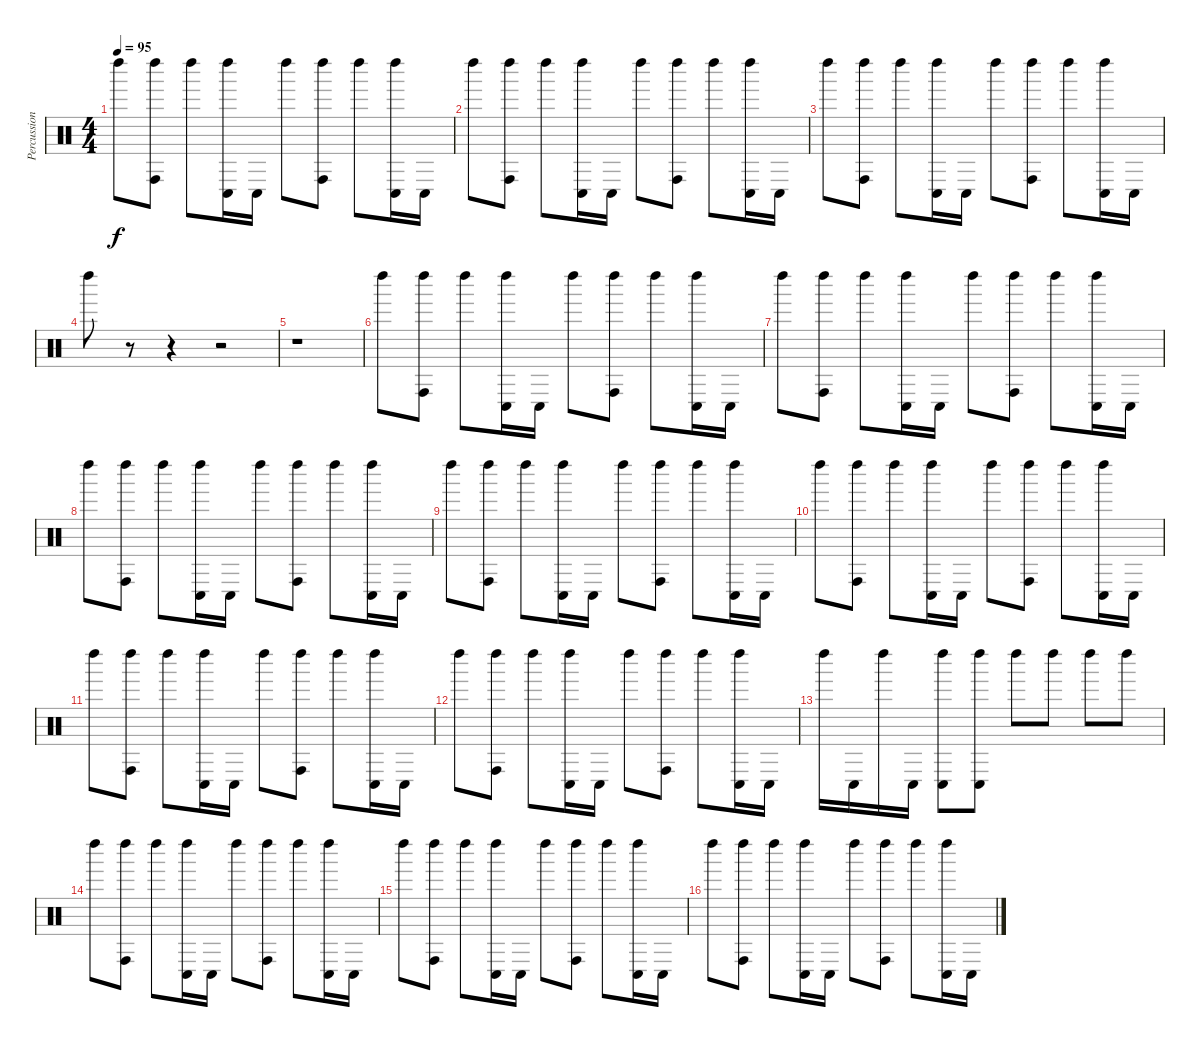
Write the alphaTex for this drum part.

\track ("Percussion" "Percussion") {instrument percussion}
\staff {score}
\articulation defaults
\ts (4 4)
\tempo 95
\clef neutral
\ks c "Left Maraca (hit)".8{dy f}
("Left Maraca (hit)" "Conga high (hit)").8 "Left Maraca (hit)".8 ("Left Maraca (hit)" "Conga low (hit)").16 "Conga low (hit)".16 "Left Maraca (hit)".8 ("Left Maraca (hit)" "Conga high (hit)").8 "Left Maraca (hit)".8 ("Left Maraca (hit)" "Conga low (hit)").16 "Conga low (hit)".16 |
"Left Maraca (hit)".8 ("Left Maraca (hit)" "Conga high (hit)").8 "Left Maraca (hit)".8 ("Left Maraca (hit)" "Conga low (hit)").16 "Conga low (hit)".16 "Left Maraca (hit)".8 ("Left Maraca (hit)" "Conga high (hit)").8 "Left Maraca (hit)".8 ("Left Maraca (hit)" "Conga low (hit)").16 "Conga low (hit)".16 |
"Left Maraca (hit)".8 ("Left Maraca (hit)" "Conga high (hit)").8 "Left Maraca (hit)".8 ("Left Maraca (hit)" "Conga low (hit)").16 "Conga low (hit)".16 "Left Maraca (hit)".8 ("Left Maraca (hit)" "Conga high (hit)").8 "Left Maraca (hit)".8 ("Left Maraca (hit)" "Conga low (hit)").16 "Conga low (hit)".16 |
"Left Maraca (hit)".8 r.8 r.4 r.2 |
r.1 |
"Left Maraca (hit)".8 ("Left Maraca (hit)" "Conga high (hit)").8 "Left Maraca (hit)".8 ("Left Maraca (hit)" "Conga low (hit)").16 "Conga low (hit)".16 "Left Maraca (hit)".8 ("Left Maraca (hit)" "Conga high (hit)").8 "Left Maraca (hit)".8 ("Left Maraca (hit)" "Conga low (hit)").16 "Conga low (hit)".16 |
"Left Maraca (hit)".8 ("Left Maraca (hit)" "Conga high (hit)").8 "Left Maraca (hit)".8 ("Left Maraca (hit)" "Conga low (hit)").16 "Conga low (hit)".16 "Left Maraca (hit)".8 ("Left Maraca (hit)" "Conga high (hit)").8 "Left Maraca (hit)".8 ("Left Maraca (hit)" "Conga low (hit)").16 "Conga low (hit)".16 |
"Left Maraca (hit)".8 ("Left Maraca (hit)" "Conga high (hit)").8 "Left Maraca (hit)".8 ("Left Maraca (hit)" "Conga low (hit)").16 "Conga low (hit)".16 "Left Maraca (hit)".8 ("Left Maraca (hit)" "Conga high (hit)").8 "Left Maraca (hit)".8 ("Left Maraca (hit)" "Conga low (hit)").16 "Conga low (hit)".16 |
"Left Maraca (hit)".8 ("Left Maraca (hit)" "Conga high (hit)").8 "Left Maraca (hit)".8 ("Left Maraca (hit)" "Conga low (hit)").16 "Conga low (hit)".16 "Left Maraca (hit)".8 ("Left Maraca (hit)" "Conga high (hit)").8 "Left Maraca (hit)".8 ("Left Maraca (hit)" "Conga low (hit)").16 "Conga low (hit)".16 |
"Left Maraca (hit)".8 ("Left Maraca (hit)" "Conga high (hit)").8 "Left Maraca (hit)".8 ("Left Maraca (hit)" "Conga low (hit)").16 "Conga low (hit)".16 "Left Maraca (hit)".8 ("Left Maraca (hit)" "Conga high (hit)").8 "Left Maraca (hit)".8 ("Left Maraca (hit)" "Conga low (hit)").16 "Conga low (hit)".16 |
"Left Maraca (hit)".8 ("Left Maraca (hit)" "Conga high (hit)").8 "Left Maraca (hit)".8 ("Left Maraca (hit)" "Conga low (hit)").16 "Conga low (hit)".16 "Left Maraca (hit)".8 ("Left Maraca (hit)" "Conga high (hit)").8 "Left Maraca (hit)".8 ("Left Maraca (hit)" "Conga low (hit)").16 "Conga low (hit)".16 |
"Left Maraca (hit)".8 ("Left Maraca (hit)" "Conga high (hit)").8 "Left Maraca (hit)".8 ("Left Maraca (hit)" "Conga low (hit)").16 "Conga low (hit)".16 "Left Maraca (hit)".8 ("Left Maraca (hit)" "Conga high (hit)").8 "Left Maraca (hit)".8 ("Left Maraca (hit)" "Conga low (hit)").16 "Conga low (hit)".16 |
"Left Maraca (hit)".16 "Conga low (hit)".16 "Left Maraca (hit)".16 "Conga low (hit)".16 ("Left Maraca (hit)" "Conga low (hit)").8 ("Left Maraca (hit)" "Conga low (hit)").8 "Left Maraca (hit)".8 "Left Maraca (hit)".8 "Left Maraca (hit)".8 "Left Maraca (hit)".8 |
"Left Maraca (hit)".8 ("Left Maraca (hit)" "Conga high (hit)").8 "Left Maraca (hit)".8 ("Left Maraca (hit)" "Conga low (hit)").16 "Conga low (hit)".16 "Left Maraca (hit)".8 ("Left Maraca (hit)" "Conga high (hit)").8 "Left Maraca (hit)".8 ("Left Maraca (hit)" "Conga low (hit)").16 "Conga low (hit)".16 |
"Left Maraca (hit)".8 ("Left Maraca (hit)" "Conga high (hit)").8 "Left Maraca (hit)".8 ("Left Maraca (hit)" "Conga low (hit)").16 "Conga low (hit)".16 "Left Maraca (hit)".8 ("Left Maraca (hit)" "Conga high (hit)").8 "Left Maraca (hit)".8 ("Left Maraca (hit)" "Conga low (hit)").16 "Conga low (hit)".16 |
"Left Maraca (hit)".8 ("Left Maraca (hit)" "Conga high (hit)").8 "Left Maraca (hit)".8 ("Left Maraca (hit)" "Conga low (hit)").16 "Conga low (hit)".16 "Left Maraca (hit)".8 ("Left Maraca (hit)" "Conga high (hit)").8 "Left Maraca (hit)".8 ("Left Maraca (hit)" "Conga low (hit)").16 "Conga low (hit)".16
